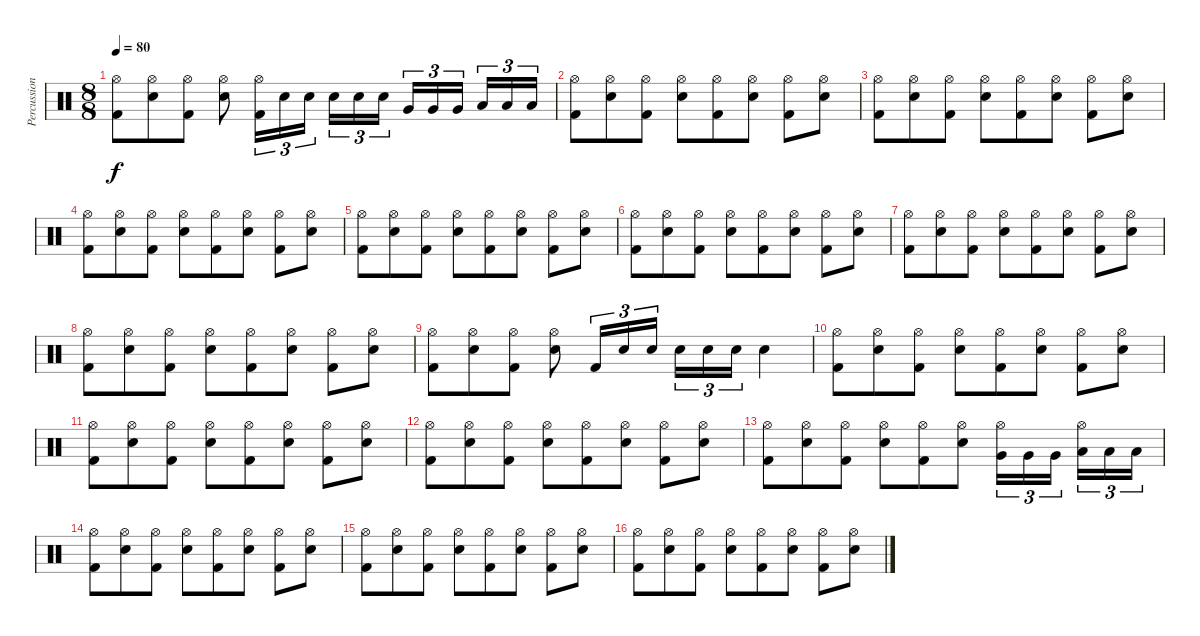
\track ("Percussion" "Percussion") {instrument percussion}
\staff {score}
\articulation defaults
\ts (8 8)
\tempo 80
\clef neutral
\ks c
("Hi-Hat (open)" "Kick (hit) 2").8{dy f} ("Hi-Hat (open)" "Electric Snare (hit)").8 ("Hi-Hat (open)" "Kick (hit) 2").8 ("Hi-Hat (open)" "Electric Snare (hit)").8 ("Hi-Hat (open)" "Kick (hit) 2").16{tu (3 2)} "Electric Snare (hit)".16{tu (3 2)} "Electric Snare (hit)".16{tu (3 2)} "Electric Snare (hit)".16{tu (3 2)} "Electric Snare (hit)".16{tu (3 2)} "Electric Snare (hit)".16{tu (3 2)} "Very Low Tom (hit)".16{tu (3 2)} "Very Low Tom (hit)".16{tu (3 2)} "Very Low Tom (hit)".16{tu (3 2)} "Low Floor Tom (hit)".16{tu (3 2)} "Low Floor Tom (hit)".16{tu (3 2)} "Low Floor Tom (hit)".16{tu (3 2)} |
("Hi-Hat (open)" "Kick (hit) 2").8 ("Hi-Hat (open)" "Electric Snare (hit)").8 ("Hi-Hat (open)" "Kick (hit) 2").8 ("Hi-Hat (open)" "Electric Snare (hit)").8 ("Hi-Hat (open)" "Kick (hit) 2").8 ("Hi-Hat (open)" "Electric Snare (hit)").8 ("Hi-Hat (open)" "Kick (hit) 2").8 ("Hi-Hat (open)" "Electric Snare (hit)").8 |
("Hi-Hat (open)" "Kick (hit) 2").8 ("Hi-Hat (open)" "Electric Snare (hit)").8 ("Hi-Hat (open)" "Kick (hit) 2").8 ("Hi-Hat (open)" "Electric Snare (hit)").8 ("Hi-Hat (open)" "Kick (hit) 2").8 ("Hi-Hat (open)" "Electric Snare (hit)").8 ("Hi-Hat (open)" "Kick (hit) 2").8 ("Hi-Hat (open)" "Electric Snare (hit)").8 |
("Hi-Hat (open)" "Kick (hit) 2").8 ("Hi-Hat (open)" "Electric Snare (hit)").8 ("Hi-Hat (open)" "Kick (hit) 2").8 ("Hi-Hat (open)" "Electric Snare (hit)").8 ("Hi-Hat (open)" "Kick (hit) 2").8 ("Hi-Hat (open)" "Electric Snare (hit)").8 ("Hi-Hat (open)" "Kick (hit) 2").8 ("Hi-Hat (open)" "Electric Snare (hit)").8 |
("Hi-Hat (open)" "Kick (hit) 2").8 ("Hi-Hat (open)" "Electric Snare (hit)").8 ("Hi-Hat (open)" "Kick (hit) 2").8 ("Hi-Hat (open)" "Electric Snare (hit)").8 ("Hi-Hat (open)" "Kick (hit) 2").8 ("Hi-Hat (open)" "Electric Snare (hit)").8 ("Hi-Hat (open)" "Kick (hit) 2").8 ("Hi-Hat (open)" "Electric Snare (hit)").8 |
("Hi-Hat (open)" "Kick (hit) 2").8 ("Hi-Hat (open)" "Electric Snare (hit)").8 ("Hi-Hat (open)" "Kick (hit) 2").8 ("Hi-Hat (open)" "Electric Snare (hit)").8 ("Hi-Hat (open)" "Kick (hit) 2").8 ("Hi-Hat (open)" "Electric Snare (hit)").8 ("Hi-Hat (open)" "Kick (hit) 2").8 ("Hi-Hat (open)" "Electric Snare (hit)").8 |
("Hi-Hat (open)" "Kick (hit) 2").8 ("Hi-Hat (open)" "Electric Snare (hit)").8 ("Hi-Hat (open)" "Kick (hit) 2").8 ("Hi-Hat (open)" "Electric Snare (hit)").8 ("Hi-Hat (open)" "Kick (hit) 2").8 ("Hi-Hat (open)" "Electric Snare (hit)").8 ("Hi-Hat (open)" "Kick (hit) 2").8 ("Hi-Hat (open)" "Electric Snare (hit)").8 |
("Hi-Hat (open)" "Kick (hit) 2").8 ("Hi-Hat (open)" "Electric Snare (hit)").8 ("Hi-Hat (open)" "Kick (hit) 2").8 ("Hi-Hat (open)" "Electric Snare (hit)").8 ("Hi-Hat (open)" "Kick (hit) 2").8 ("Hi-Hat (open)" "Electric Snare (hit)").8 ("Hi-Hat (open)" "Kick (hit) 2").8 ("Hi-Hat (open)" "Electric Snare (hit)").8 |
("Hi-Hat (open)" "Kick (hit) 2").8 ("Hi-Hat (open)" "Electric Snare (hit)").8 ("Hi-Hat (open)" "Kick (hit) 2").8 ("Hi-Hat (open)" "Electric Snare (hit)").8 "Kick (hit) 2".16{tu (3 2)} "Electric Snare (hit)".16{tu (3 2)} "Electric Snare (hit)".16{tu (3 2)} "Electric Snare (hit)".16{tu (3 2)} "Electric Snare (hit)".16{tu (3 2)} "Electric Snare (hit)".16{tu (3 2)} "Electric Snare (hit)".4 |
("Hi-Hat (open)" "Kick (hit) 2").8 ("Hi-Hat (open)" "Electric Snare (hit)").8 ("Hi-Hat (open)" "Kick (hit) 2").8 ("Hi-Hat (open)" "Electric Snare (hit)").8 ("Hi-Hat (open)" "Kick (hit) 2").8 ("Hi-Hat (open)" "Electric Snare (hit)").8 ("Hi-Hat (open)" "Kick (hit) 2").8 ("Hi-Hat (open)" "Electric Snare (hit)").8 |
("Hi-Hat (open)" "Kick (hit) 2").8 ("Hi-Hat (open)" "Electric Snare (hit)").8 ("Hi-Hat (open)" "Kick (hit) 2").8 ("Hi-Hat (open)" "Electric Snare (hit)").8 ("Hi-Hat (open)" "Kick (hit) 2").8 ("Hi-Hat (open)" "Electric Snare (hit)").8 ("Hi-Hat (open)" "Kick (hit) 2").8 ("Hi-Hat (open)" "Electric Snare (hit)").8 |
("Hi-Hat (open)" "Kick (hit) 2").8 ("Hi-Hat (open)" "Electric Snare (hit)").8 ("Hi-Hat (open)" "Kick (hit) 2").8 ("Hi-Hat (open)" "Electric Snare (hit)").8 ("Hi-Hat (open)" "Kick (hit) 2").8 ("Hi-Hat (open)" "Electric Snare (hit)").8 ("Hi-Hat (open)" "Kick (hit) 2").8 ("Hi-Hat (open)" "Electric Snare (hit)").8 |
("Hi-Hat (open)" "Kick (hit) 2").8 ("Hi-Hat (open)" "Electric Snare (hit)").8 ("Hi-Hat (open)" "Kick (hit) 2").8 ("Hi-Hat (open)" "Electric Snare (hit)").8 ("Hi-Hat (open)" "Kick (hit) 2").8 ("Hi-Hat (open)" "Electric Snare (hit)").8 ("Hi-Hat (open)" "Very Low Tom (hit)").16{tu (3 2)} "Very Low Tom (hit)".16{tu (3 2)} "Very Low Tom (hit)".16{tu (3 2)} ("Hi-Hat (open)" "Low Floor Tom (hit)").16{tu (3 2)} "Low Floor Tom (hit)".16{tu (3 2)} "Low Floor Tom (hit)".16{tu (3 2)} |
("Hi-Hat (open)" "Kick (hit) 2").8 ("Hi-Hat (open)" "Electric Snare (hit)").8 ("Hi-Hat (open)" "Kick (hit) 2").8 ("Hi-Hat (open)" "Electric Snare (hit)").8 ("Hi-Hat (open)" "Kick (hit) 2").8 ("Hi-Hat (open)" "Electric Snare (hit)").8 ("Hi-Hat (open)" "Kick (hit) 2").8 ("Hi-Hat (open)" "Electric Snare (hit)").8 |
("Hi-Hat (open)" "Kick (hit) 2").8 ("Hi-Hat (open)" "Electric Snare (hit)").8 ("Hi-Hat (open)" "Kick (hit) 2").8 ("Hi-Hat (open)" "Electric Snare (hit)").8 ("Hi-Hat (open)" "Kick (hit) 2").8 ("Hi-Hat (open)" "Electric Snare (hit)").8 ("Hi-Hat (open)" "Kick (hit) 2").8 ("Hi-Hat (open)" "Electric Snare (hit)").8 |
("Hi-Hat (open)" "Kick (hit) 2").8 ("Hi-Hat (open)" "Electric Snare (hit)").8 ("Hi-Hat (open)" "Kick (hit) 2").8 ("Hi-Hat (open)" "Electric Snare (hit)").8 ("Hi-Hat (open)" "Kick (hit) 2").8 ("Hi-Hat (open)" "Electric Snare (hit)").8 ("Hi-Hat (open)" "Kick (hit) 2").8 ("Hi-Hat (open)" "Electric Snare (hit)").8
